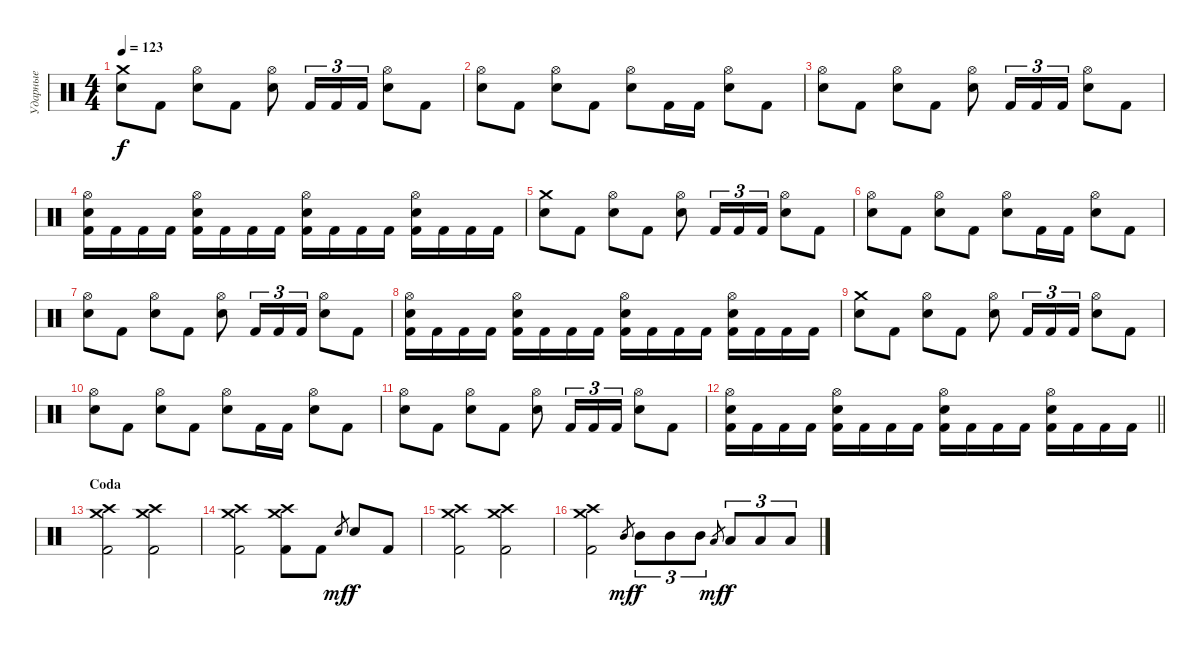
\track ("Ударные" "Ударные") {instrument percussion}
\staff {score}
\articulation defaults
\ts (4 4)
\tempo 123
\clef neutral
\ks c
("Crash medium (hit)" "Snare (hit) 2").8{dy f} "Kick (hit) 2".8 ("Snare (hit) 2" "Hi-Hat (open)").8 "Kick (hit) 2".8 ("Snare (hit) 2" "Hi-Hat (open)").8 "Kick (hit) 2".16{tu (3 2)} "Kick (hit) 2".16{tu (3 2)} "Kick (hit) 2".16{tu (3 2)} ("Snare (hit) 2" "Hi-Hat (open)").8 "Kick (hit) 2".8 |
("Snare (hit) 2" "Hi-Hat (open)").8 "Kick (hit) 2".8 ("Snare (hit) 2" "Hi-Hat (open)").8 "Kick (hit) 2".8 ("Snare (hit) 2" "Hi-Hat (open)").8 "Kick (hit) 2".16 "Kick (hit) 2".16 ("Snare (hit) 2" "Hi-Hat (open)").8 "Kick (hit) 2".8 |
("Snare (hit) 2" "Hi-Hat (open)").8 "Kick (hit) 2".8 ("Snare (hit) 2" "Hi-Hat (open)").8 "Kick (hit) 2".8 ("Snare (hit) 2" "Hi-Hat (open)").8 "Kick (hit) 2".16{tu (3 2)} "Kick (hit) 2".16{tu (3 2)} "Kick (hit) 2".16{tu (3 2)} ("Snare (hit) 2" "Hi-Hat (open)").8 "Kick (hit) 2".8 |
("Snare (hit) 2" "Kick (hit) 2" "Hi-Hat (open)").16 "Kick (hit) 2".16 "Kick (hit) 2".16 "Kick (hit) 2".16 ("Snare (hit) 2" "Kick (hit) 2" "Hi-Hat (open)").16 "Kick (hit) 2".16 "Kick (hit) 2".16 "Kick (hit) 2".16 ("Snare (hit) 2" "Kick (hit) 2" "Hi-Hat (open)").16 "Kick (hit) 2".16 "Kick (hit) 2".16 "Kick (hit) 2".16 ("Snare (hit) 2" "Kick (hit) 2" "Hi-Hat (open)").16 "Kick (hit) 2".16 "Kick (hit) 2".16 "Kick (hit) 2".16 |
("Crash medium (hit)" "Snare (hit) 2").8 "Kick (hit) 2".8 ("Snare (hit) 2" "Hi-Hat (open)").8 "Kick (hit) 2".8 ("Snare (hit) 2" "Hi-Hat (open)").8 "Kick (hit) 2".16{tu (3 2)} "Kick (hit) 2".16{tu (3 2)} "Kick (hit) 2".16{tu (3 2)} ("Snare (hit) 2" "Hi-Hat (open)").8 "Kick (hit) 2".8 |
("Snare (hit) 2" "Hi-Hat (open)").8 "Kick (hit) 2".8 ("Snare (hit) 2" "Hi-Hat (open)").8 "Kick (hit) 2".8 ("Snare (hit) 2" "Hi-Hat (open)").8 "Kick (hit) 2".16 "Kick (hit) 2".16 ("Snare (hit) 2" "Hi-Hat (open)").8 "Kick (hit) 2".8 |
("Snare (hit) 2" "Hi-Hat (open)").8 "Kick (hit) 2".8 ("Snare (hit) 2" "Hi-Hat (open)").8 "Kick (hit) 2".8 ("Snare (hit) 2" "Hi-Hat (open)").8 "Kick (hit) 2".16{tu (3 2)} "Kick (hit) 2".16{tu (3 2)} "Kick (hit) 2".16{tu (3 2)} ("Snare (hit) 2" "Hi-Hat (open)").8 "Kick (hit) 2".8 |
("Snare (hit) 2" "Kick (hit) 2" "Hi-Hat (open)").16 "Kick (hit) 2".16 "Kick (hit) 2".16 "Kick (hit) 2".16 ("Snare (hit) 2" "Kick (hit) 2" "Hi-Hat (open)").16 "Kick (hit) 2".16 "Kick (hit) 2".16 "Kick (hit) 2".16 ("Snare (hit) 2" "Kick (hit) 2" "Hi-Hat (open)").16 "Kick (hit) 2".16 "Kick (hit) 2".16 "Kick (hit) 2".16 ("Snare (hit) 2" "Kick (hit) 2" "Hi-Hat (open)").16 "Kick (hit) 2".16 "Kick (hit) 2".16 "Kick (hit) 2".16 |
("Crash medium (hit)" "Snare (hit) 2").8 "Kick (hit) 2".8 ("Snare (hit) 2" "Hi-Hat (open)").8 "Kick (hit) 2".8 ("Snare (hit) 2" "Hi-Hat (open)").8 "Kick (hit) 2".16{tu (3 2)} "Kick (hit) 2".16{tu (3 2)} "Kick (hit) 2".16{tu (3 2)} ("Snare (hit) 2" "Hi-Hat (open)").8 "Kick (hit) 2".8 |
("Snare (hit) 2" "Hi-Hat (open)").8 "Kick (hit) 2".8 ("Snare (hit) 2" "Hi-Hat (open)").8 "Kick (hit) 2".8 ("Snare (hit) 2" "Hi-Hat (open)").8 "Kick (hit) 2".16 "Kick (hit) 2".16 ("Snare (hit) 2" "Hi-Hat (open)").8 "Kick (hit) 2".8 |
("Snare (hit) 2" "Hi-Hat (open)").8 "Kick (hit) 2".8 ("Snare (hit) 2" "Hi-Hat (open)").8 "Kick (hit) 2".8 ("Snare (hit) 2" "Hi-Hat (open)").8 "Kick (hit) 2".16{tu (3 2)} "Kick (hit) 2".16{tu (3 2)} "Kick (hit) 2".16{tu (3 2)} ("Snare (hit) 2" "Hi-Hat (open)").8 "Kick (hit) 2".8 |
\barLineRight lightlight
("Snare (hit) 2" "Kick (hit) 2" "Hi-Hat (open)").16 "Kick (hit) 2".16 "Kick (hit) 2".16 "Kick (hit) 2".16 ("Snare (hit) 2" "Kick (hit) 2" "Hi-Hat (open)").16 "Kick (hit) 2".16 "Kick (hit) 2".16 "Kick (hit) 2".16 ("Snare (hit) 2" "Kick (hit) 2" "Hi-Hat (open)").16 "Kick (hit) 2".16 "Kick (hit) 2".16 "Kick (hit) 2".16 ("Snare (hit) 2" "Kick (hit) 2" "Hi-Hat (open)").16 "Kick (hit) 2".16 "Kick (hit) 2".16 "Kick (hit) 2".16 |
\section ("" "Coda")
("Crash high (hit)" "Crash medium (hit)" "Kick (hit) 2").2 ("Crash high (hit)" "Crash medium (hit)" "Kick (hit) 2").2 |
("Crash high (hit)" "Crash medium (hit)" "Kick (hit) 2").2 ("Crash high (hit)" "Crash medium (hit)" "Kick (hit) 2").8 "Kick (hit) 2".8 "Snare (hit) 2".8{gr dy mf} "Snare (hit) 2".8{dy f} "Kick (hit) 2".8 |
("Crash high (hit)" "Crash medium (hit)" "Kick (hit) 2").2 ("Crash high (hit)" "Crash medium (hit)" "Kick (hit) 2").2 |
("Crash high (hit)" "Crash medium (hit)" "Kick (hit) 2").2 "Mid Tom (hit)".8{gr dy mf} "Mid Tom (hit)".8{tu (3 2) dy f} "Mid Tom (hit)".8{tu (3 2)} "Mid Tom (hit)".8{tu (3 2)} "Low Tom (hit)".8{gr dy mf} "Low Tom (hit)".8{tu (3 2) dy f} "Low Tom (hit)".8{tu (3 2)} "Low Tom (hit)".8{tu (3 2)}
